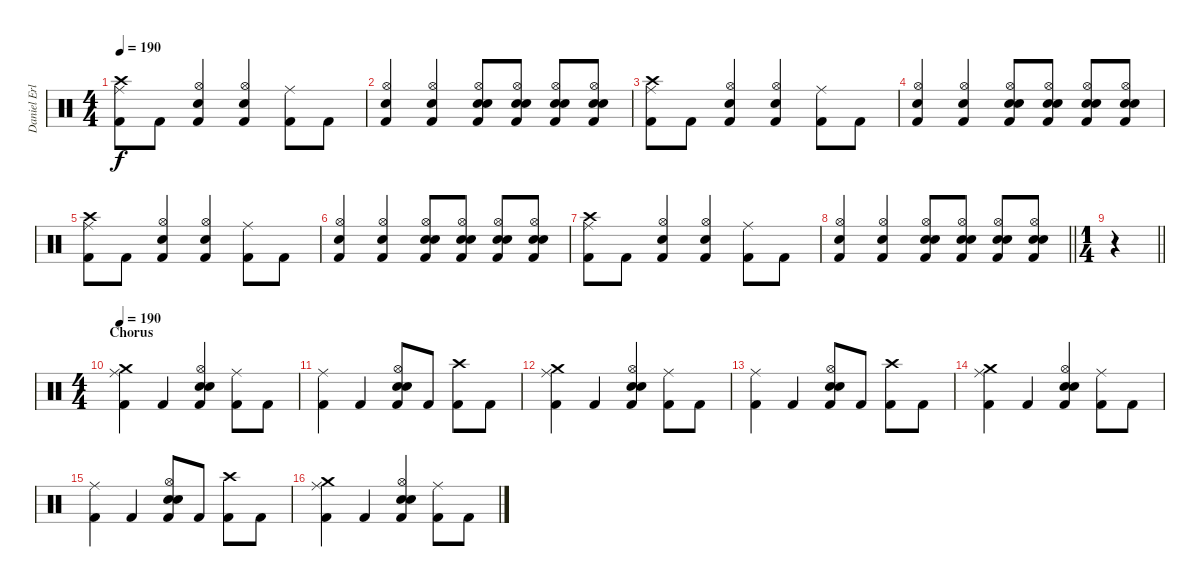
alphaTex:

\track ("Daniel Erlandsson" "Daniel Erl") {instrument percussion}
\staff {score}
\articulation defaults
\ts (4 4)
\tempo 190
\clef neutral
\ks c
("Crash high (hit)" "Ride (middle)" "Kick (hit) 2").8{dy f} "Kick (hit) 2".8 ("Hi-Hat (open)" "Snare (hit) 2" "Kick (hit) 2").4 ("Hi-Hat (open)" "Snare (hit) 2" "Kick (hit) 2").4 ("Ride (middle)" "Kick (hit) 2").8 "Kick (hit) 2".8 |
("Hi-Hat (open)" "Snare (hit) 2" "Kick (hit) 2").4 ("Hi-Hat (open)" "Snare (hit) 2" "Kick (hit) 2").4 ("Hi-Hat (open)" "Snare (hit) 2" "Electric Snare (hit)" "Kick (hit) 2").8 ("Hi-Hat (open)" "Snare (hit) 2" "Electric Snare (hit)" "Kick (hit) 2").8 ("Hi-Hat (open)" "Snare (hit) 2" "Electric Snare (hit)" "Kick (hit) 2").8 ("Hi-Hat (open)" "Snare (hit) 2" "Electric Snare (hit)" "Kick (hit) 2").8 |
("Crash high (hit)" "Ride (middle)" "Kick (hit) 2").8 "Kick (hit) 2".8 ("Hi-Hat (open)" "Snare (hit) 2" "Kick (hit) 2").4 ("Hi-Hat (open)" "Snare (hit) 2" "Kick (hit) 2").4 ("Ride (middle)" "Kick (hit) 2").8 "Kick (hit) 2".8 |
("Hi-Hat (open)" "Snare (hit) 2" "Kick (hit) 2").4 ("Hi-Hat (open)" "Snare (hit) 2" "Kick (hit) 2").4 ("Hi-Hat (open)" "Snare (hit) 2" "Electric Snare (hit)" "Kick (hit) 2").8 ("Hi-Hat (open)" "Snare (hit) 2" "Electric Snare (hit)" "Kick (hit) 2").8 ("Hi-Hat (open)" "Snare (hit) 2" "Electric Snare (hit)" "Kick (hit) 2").8 ("Hi-Hat (open)" "Snare (hit) 2" "Electric Snare (hit)" "Kick (hit) 2").8 |
("Crash high (hit)" "Ride (middle)" "Kick (hit) 2").8 "Kick (hit) 2".8 ("Hi-Hat (open)" "Snare (hit) 2" "Kick (hit) 2").4 ("Hi-Hat (open)" "Snare (hit) 2" "Kick (hit) 2").4 ("Ride (middle)" "Kick (hit) 2").8 "Kick (hit) 2".8 |
("Hi-Hat (open)" "Snare (hit) 2" "Kick (hit) 2").4 ("Hi-Hat (open)" "Snare (hit) 2" "Kick (hit) 2").4 ("Hi-Hat (open)" "Snare (hit) 2" "Electric Snare (hit)" "Kick (hit) 2").8 ("Hi-Hat (open)" "Snare (hit) 2" "Electric Snare (hit)" "Kick (hit) 2").8 ("Hi-Hat (open)" "Snare (hit) 2" "Electric Snare (hit)" "Kick (hit) 2").8 ("Hi-Hat (open)" "Snare (hit) 2" "Electric Snare (hit)" "Kick (hit) 2").8 |
("Crash high (hit)" "Ride (middle)" "Kick (hit) 2").8 "Kick (hit) 2".8 ("Hi-Hat (open)" "Snare (hit) 2" "Kick (hit) 2").4 ("Hi-Hat (open)" "Snare (hit) 2" "Kick (hit) 2").4 ("Ride (middle)" "Kick (hit) 2").8 "Kick (hit) 2".8 |
\barLineRight lightlight
("Hi-Hat (open)" "Snare (hit) 2" "Kick (hit) 2").4 ("Hi-Hat (open)" "Snare (hit) 2" "Kick (hit) 2").4 ("Hi-Hat (open)" "Snare (hit) 2" "Electric Snare (hit)" "Kick (hit) 2").8 ("Hi-Hat (open)" "Snare (hit) 2" "Electric Snare (hit)" "Kick (hit) 2").8 ("Hi-Hat (open)" "Snare (hit) 2" "Electric Snare (hit)" "Kick (hit) 2").8 ("Hi-Hat (open)" "Snare (hit) 2" "Electric Snare (hit)" "Kick (hit) 2").8 |
\ts (1 4)
\barLineRight lightlight
r.4 |
\ts (4 4)
\section ("" "Chorus")
\tempo 190
("Crash medium (hit)" "Ride (middle)" "Kick (hit) 2").4 "Kick (hit) 2".4 ("Hi-Hat (open)" "Snare (hit) 2" "Electric Snare (hit)" "Kick (hit) 2").4 ("Ride (middle)" "Kick (hit) 2").8 "Kick (hit) 2".8 |
("Ride (middle)" "Kick (hit) 2").4 "Kick (hit) 2".4 ("Hi-Hat (open)" "Snare (hit) 2" "Electric Snare (hit)" "Kick (hit) 2").8 "Kick (hit) 2".8 ("Crash high (hit)" "Kick (hit) 2").8 "Kick (hit) 2".8 |
("Crash medium (hit)" "Ride (middle)" "Kick (hit) 2").4 "Kick (hit) 2".4 ("Hi-Hat (open)" "Snare (hit) 2" "Electric Snare (hit)" "Kick (hit) 2").4 ("Ride (middle)" "Kick (hit) 2").8 "Kick (hit) 2".8 |
("Ride (middle)" "Kick (hit) 2").4 "Kick (hit) 2".4 ("Hi-Hat (open)" "Snare (hit) 2" "Electric Snare (hit)" "Kick (hit) 2").8 "Kick (hit) 2".8 ("Crash high (hit)" "Kick (hit) 2").8 "Kick (hit) 2".8 |
("Crash medium (hit)" "Ride (middle)" "Kick (hit) 2").4 "Kick (hit) 2".4 ("Hi-Hat (open)" "Snare (hit) 2" "Electric Snare (hit)" "Kick (hit) 2").4 ("Ride (middle)" "Kick (hit) 2").8 "Kick (hit) 2".8 |
("Ride (middle)" "Kick (hit) 2").4 "Kick (hit) 2".4 ("Hi-Hat (open)" "Snare (hit) 2" "Electric Snare (hit)" "Kick (hit) 2").8 "Kick (hit) 2".8 ("Crash high (hit)" "Kick (hit) 2").8 "Kick (hit) 2".8 |
("Crash medium (hit)" "Ride (middle)" "Kick (hit) 2").4 "Kick (hit) 2".4 ("Hi-Hat (open)" "Snare (hit) 2" "Electric Snare (hit)" "Kick (hit) 2").4 ("Ride (middle)" "Kick (hit) 2").8 "Kick (hit) 2".8
